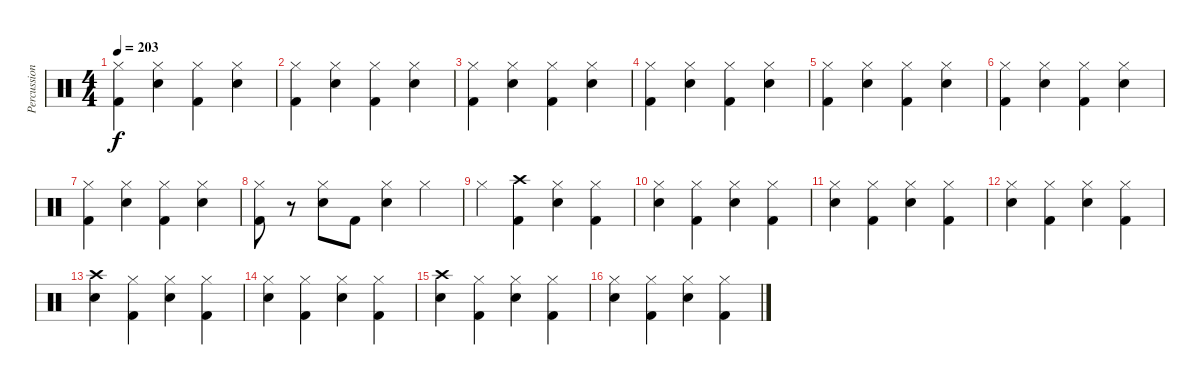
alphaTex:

\track ("Percussion" "Percussion") {instrument percussion}
\staff {score}
\articulation defaults
\ts (4 4)
\tempo 203
\clef neutral
\ks c
("Hi-Hat (closed)" "Kick (hit) 2").4{dy f} ("Hi-Hat (closed)" "Electric Snare (hit)").4 ("Hi-Hat (closed)" "Kick (hit) 2").4 ("Hi-Hat (closed)" "Electric Snare (hit)").4 |
("Hi-Hat (closed)" "Kick (hit) 2").4 ("Hi-Hat (closed)" "Electric Snare (hit)").4 ("Hi-Hat (closed)" "Kick (hit) 2").4 ("Hi-Hat (closed)" "Electric Snare (hit)").4 |
("Hi-Hat (closed)" "Kick (hit) 2").4 ("Hi-Hat (closed)" "Electric Snare (hit)").4 ("Hi-Hat (closed)" "Kick (hit) 2").4 ("Hi-Hat (closed)" "Electric Snare (hit)").4 |
("Hi-Hat (closed)" "Kick (hit) 2").4 ("Hi-Hat (closed)" "Electric Snare (hit)").4 ("Hi-Hat (closed)" "Kick (hit) 2").4 ("Hi-Hat (closed)" "Electric Snare (hit)").4 |
("Hi-Hat (closed)" "Kick (hit) 2").4 ("Hi-Hat (closed)" "Electric Snare (hit)").4 ("Hi-Hat (closed)" "Kick (hit) 2").4 ("Hi-Hat (closed)" "Electric Snare (hit)").4 |
("Hi-Hat (closed)" "Kick (hit) 2").4 ("Hi-Hat (closed)" "Electric Snare (hit)").4 ("Hi-Hat (closed)" "Kick (hit) 2").4 ("Hi-Hat (closed)" "Electric Snare (hit)").4 |
("Hi-Hat (closed)" "Kick (hit) 2").4 ("Hi-Hat (closed)" "Electric Snare (hit)").4 ("Hi-Hat (closed)" "Kick (hit) 2").4 ("Hi-Hat (closed)" "Electric Snare (hit)").4 |
("Hi-Hat (closed)" "Kick (hit) 2").8 r.8 ("Hi-Hat (closed)" "Electric Snare (hit)").8 "Kick (hit) 2".8 ("Hi-Hat (closed)" "Electric Snare (hit)").4 "Hi-Hat (closed)".4 |
"Hi-Hat (closed)".4 ("Crash high (hit)" "Kick (hit) 2").4 ("Hi-Hat (closed)" "Electric Snare (hit)").4 ("Hi-Hat (closed)" "Kick (hit) 2").4 |
("Hi-Hat (closed)" "Electric Snare (hit)").4 ("Hi-Hat (closed)" "Kick (hit) 2").4 ("Hi-Hat (closed)" "Electric Snare (hit)").4 ("Hi-Hat (closed)" "Kick (hit) 2").4 |
("Hi-Hat (closed)" "Electric Snare (hit)").4 ("Hi-Hat (closed)" "Kick (hit) 2").4 ("Hi-Hat (closed)" "Electric Snare (hit)").4 ("Hi-Hat (closed)" "Kick (hit) 2").4 |
("Hi-Hat (closed)" "Electric Snare (hit)").4 ("Hi-Hat (closed)" "Kick (hit) 2").4 ("Hi-Hat (closed)" "Electric Snare (hit)").4 ("Hi-Hat (closed)" "Kick (hit) 2").4 |
("Crash high (hit)" "Electric Snare (hit)").4 ("Hi-Hat (closed)" "Kick (hit) 2").4 ("Hi-Hat (closed)" "Electric Snare (hit)").4 ("Hi-Hat (closed)" "Kick (hit) 2").4 |
("Hi-Hat (closed)" "Electric Snare (hit)").4 ("Hi-Hat (closed)" "Kick (hit) 2").4 ("Hi-Hat (closed)" "Electric Snare (hit)").4 ("Hi-Hat (closed)" "Kick (hit) 2").4 |
("Crash high (hit)" "Electric Snare (hit)").4 ("Hi-Hat (closed)" "Kick (hit) 2").4 ("Hi-Hat (closed)" "Electric Snare (hit)").4 ("Hi-Hat (closed)" "Kick (hit) 2").4 |
("Hi-Hat (closed)" "Electric Snare (hit)").4 ("Hi-Hat (closed)" "Kick (hit) 2").4 ("Hi-Hat (closed)" "Electric Snare (hit)").4 ("Hi-Hat (closed)" "Kick (hit) 2").4
